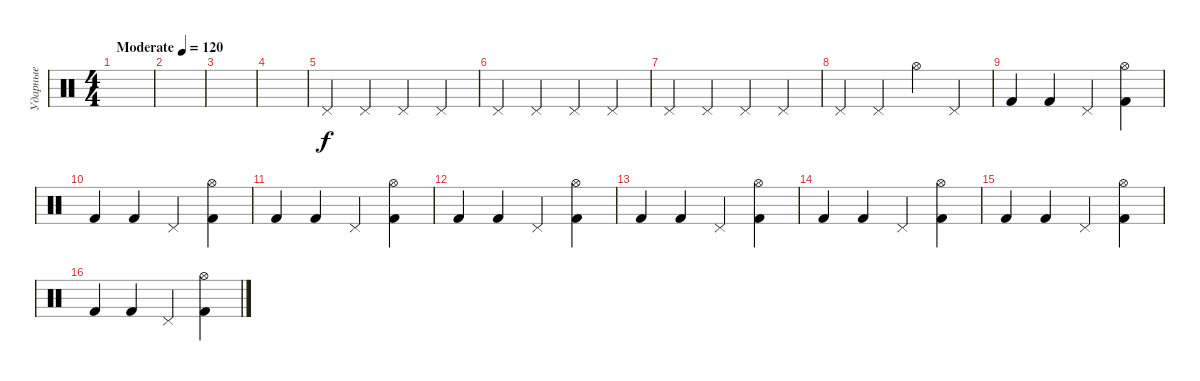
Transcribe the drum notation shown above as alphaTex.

\track ("Ударные" "Ударные") {instrument percussion}
\staff {score}
\articulation defaults
\ts (4 4)
\tempo (120 "Moderate")
\clef neutral
\ks c
|
|
|
|
"Pedal Hi-Hat (hit)".4 "Pedal Hi-Hat (hit)".4 "Pedal Hi-Hat (hit)".4 "Pedal Hi-Hat (hit)".4 |
"Pedal Hi-Hat (hit)".4 "Pedal Hi-Hat (hit)".4 "Pedal Hi-Hat (hit)".4 "Pedal Hi-Hat (hit)".4 |
"Pedal Hi-Hat (hit)".4 "Pedal Hi-Hat (hit)".4 "Pedal Hi-Hat (hit)".4 "Pedal Hi-Hat (hit)".4 |
"Pedal Hi-Hat (hit)".4 "Pedal Hi-Hat (hit)".4 "Hi-Hat (open)".4 "Pedal Hi-Hat (hit)".4 |
"Kick (hit) 2".4 "Kick (hit) 2".4 "Pedal Hi-Hat (hit)".4 ("Kick (hit) 2" "Hi-Hat (open)").4 |
"Kick (hit) 2".4 "Kick (hit) 2".4 "Pedal Hi-Hat (hit)".4 ("Kick (hit) 2" "Hi-Hat (open)").4 |
"Kick (hit) 2".4 "Kick (hit) 2".4 "Pedal Hi-Hat (hit)".4 ("Kick (hit) 2" "Hi-Hat (open)").4 |
"Kick (hit) 2".4 "Kick (hit) 2".4 "Pedal Hi-Hat (hit)".4 ("Kick (hit) 2" "Hi-Hat (open)").4 |
"Kick (hit) 2".4 "Kick (hit) 2".4 "Pedal Hi-Hat (hit)".4 ("Kick (hit) 2" "Hi-Hat (open)").4 |
"Kick (hit) 2".4 "Kick (hit) 2".4 "Pedal Hi-Hat (hit)".4 ("Kick (hit) 2" "Hi-Hat (open)").4 |
"Kick (hit) 2".4 "Kick (hit) 2".4 "Pedal Hi-Hat (hit)".4 ("Kick (hit) 2" "Hi-Hat (open)").4 |
"Kick (hit) 2".4 "Kick (hit) 2".4 "Pedal Hi-Hat (hit)".4 ("Kick (hit) 2" "Hi-Hat (open)").4
